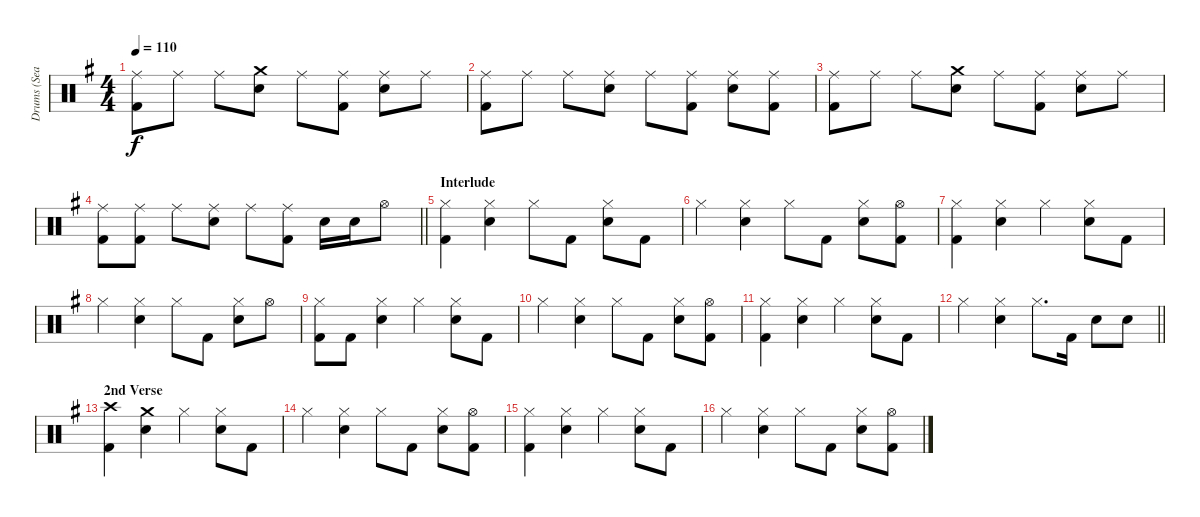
\track ("Drums (Sean)" "Drums (Sea") {instrument percussion}
\staff {score}
\articulation defaults
\ts (4 4)
\tempo 110
\clef neutral
\ks g
("Ride (middle)" "Kick (hit) 2").8{dy f} "Ride (middle)".8 "Ride (middle)".8 ("Crash medium (hit)" "Snare (hit) 2").8 "Ride (middle)".8 ("Ride (middle)" "Kick (hit) 2").8 ("Ride (middle)" "Snare (hit) 2").8 "Ride (middle)".8 |
("Ride (middle)" "Kick (hit) 2").8 "Ride (middle)".8 "Ride (middle)".8 ("Ride (middle)" "Snare (hit) 2").8 "Ride (middle)".8 ("Ride (middle)" "Kick (hit) 2").8 ("Ride (middle)" "Snare (hit) 2").8 ("Ride (middle)" "Kick (hit) 2").8 |
("Ride (middle)" "Kick (hit) 2").8 "Ride (middle)".8 "Ride (middle)".8 ("Crash medium (hit)" "Snare (hit) 2").8 "Ride (middle)".8 ("Ride (middle)" "Kick (hit) 2").8 ("Ride (middle)" "Snare (hit) 2").8 "Ride (middle)".8 |
\barLineRight lightlight
("Ride (middle)" "Kick (hit) 2").8 ("Ride (middle)" "Kick (hit) 2").8 "Ride (middle)".8 ("Ride (middle)" "Snare (hit) 2").8 "Ride (middle)".8 ("Ride (middle)" "Kick (hit) 2").8 "Snare (hit) 2".16 "Snare (hit) 2".16 "Hi-Hat (open)".8 |
\section ("" "Interlude")
("Hi-Hat (closed)" "Kick (hit) 2").4 ("Hi-Hat (closed)" "Snare (hit) 2").4 "Hi-Hat (closed)".8 "Kick (hit) 2".8 ("Hi-Hat (closed)" "Snare (hit) 2").8 "Kick (hit) 2".8 |
"Hi-Hat (closed)".4 ("Hi-Hat (closed)" "Snare (hit) 2").4 "Hi-Hat (closed)".8 "Kick (hit) 2".8 ("Hi-Hat (closed)" "Snare (hit) 2").8 ("Hi-Hat (open)" "Kick (hit) 2").8 |
("Hi-Hat (closed)" "Kick (hit) 2").4 ("Hi-Hat (closed)" "Snare (hit) 2").4 "Hi-Hat (closed)".4 ("Hi-Hat (closed)" "Snare (hit) 2").8 "Kick (hit) 2".8 |
"Hi-Hat (closed)".4 ("Hi-Hat (closed)" "Snare (hit) 2").4 "Hi-Hat (closed)".8 "Kick (hit) 2".8 ("Hi-Hat (closed)" "Snare (hit) 2").8 "Hi-Hat (open)".8 |
("Hi-Hat (closed)" "Kick (hit) 2").8 "Kick (hit) 2".8 ("Hi-Hat (closed)" "Snare (hit) 2").4 "Hi-Hat (closed)".4 ("Hi-Hat (closed)" "Snare (hit) 2").8 "Kick (hit) 2".8 |
"Hi-Hat (closed)".4 ("Hi-Hat (closed)" "Snare (hit) 2").4 "Hi-Hat (closed)".8 "Kick (hit) 2".8 ("Hi-Hat (closed)" "Snare (hit) 2").8 ("Hi-Hat (open)" "Kick (hit) 2").8 |
("Hi-Hat (closed)" "Kick (hit) 2").4 ("Hi-Hat (closed)" "Snare (hit) 2").4 "Hi-Hat (closed)".4 ("Hi-Hat (closed)" "Snare (hit) 2").8 "Kick (hit) 2".8 |
\barLineRight lightlight "Hi-Hat (closed)".4
("Hi-Hat (closed)" "Snare (hit) 2").4 "Hi-Hat (closed)".8{d} "Kick (hit) 2".16 "Snare (hit) 2".8 "Snare (hit) 2".8 |
\section ("" "2nd Verse")
("Crash high (hit)" "Kick (hit) 2").4 ("Crash medium (hit)" "Snare (hit) 2").4 "Hi-Hat (closed)".4 ("Hi-Hat (closed)" "Snare (hit) 2").8 "Kick (hit) 2".8 |
"Hi-Hat (closed)".4 ("Hi-Hat (closed)" "Snare (hit) 2").4 "Hi-Hat (closed)".8 "Kick (hit) 2".8 ("Hi-Hat (closed)" "Snare (hit) 2").8 ("Hi-Hat (open)" "Kick (hit) 2").8 |
("Hi-Hat (closed)" "Kick (hit) 2").4 ("Hi-Hat (closed)" "Snare (hit) 2").4 "Hi-Hat (closed)".4 ("Hi-Hat (closed)" "Snare (hit) 2").8 "Kick (hit) 2".8 |
"Hi-Hat (closed)".4 ("Hi-Hat (closed)" "Snare (hit) 2").4 "Hi-Hat (closed)".8 "Kick (hit) 2".8 ("Hi-Hat (closed)" "Snare (hit) 2").8 ("Hi-Hat (open)" "Kick (hit) 2").8
